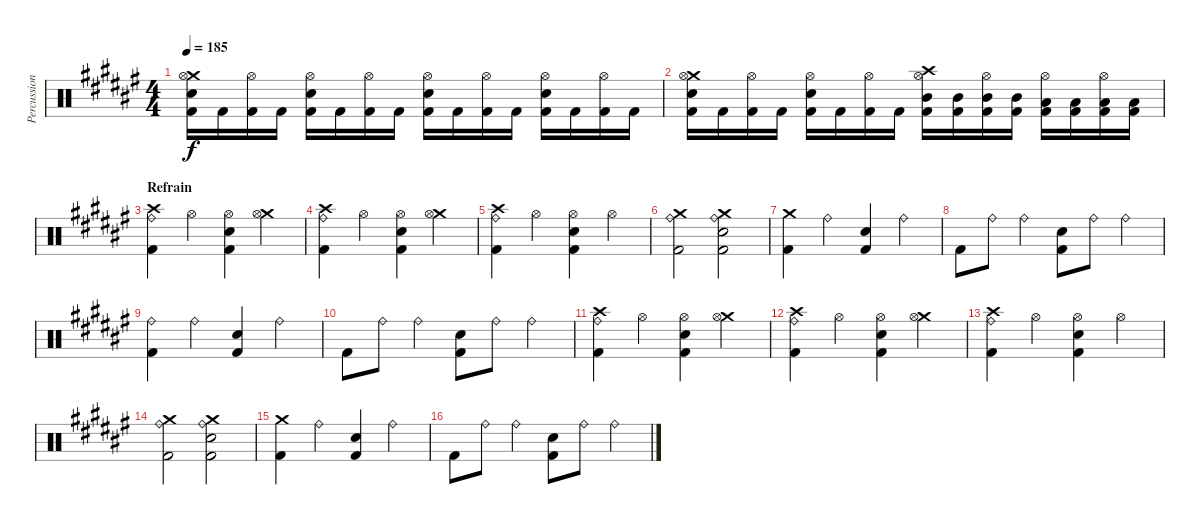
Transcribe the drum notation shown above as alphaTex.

\track ("Percussion" "Percussion") {instrument percussion}
\staff {score}
\articulation defaults
\ts (4 4)
\tempo 185
\clef neutral
\ks d#minor
("Crash medium (hit)" "Hi-Hat (open)" "Electric Snare (hit)" "Kick (hit) 2").16{dy f} "Kick (hit) 2".16 ("Hi-Hat (open)" "Kick (hit) 2").16 "Kick (hit) 2".16 ("Hi-Hat (open)" "Electric Snare (hit)" "Kick (hit) 2").16 "Kick (hit) 2".16 ("Hi-Hat (open)" "Kick (hit) 2").16 "Kick (hit) 2".16 ("Hi-Hat (open)" "Electric Snare (hit)" "Kick (hit) 2").16 "Kick (hit) 2".16 ("Hi-Hat (open)" "Kick (hit) 2").16 "Kick (hit) 2".16 ("Hi-Hat (open)" "Electric Snare (hit)" "Kick (hit) 2").16 "Kick (hit) 2".16 ("Hi-Hat (open)" "Kick (hit) 2").16 "Kick (hit) 2".16 |
("Crash medium (hit)" "Hi-Hat (open)" "Electric Snare (hit)" "Kick (hit) 2").16 "Kick (hit) 2".16 ("Hi-Hat (open)" "Kick (hit) 2").16 "Kick (hit) 2".16 ("Hi-Hat (open)" "Electric Snare (hit)" "Kick (hit) 2").16 "Kick (hit) 2".16 ("Hi-Hat (open)" "Kick (hit) 2").16 "Kick (hit) 2".16 ("Crash high (hit)" "Hi-Hat (open)" "Mid Tom (hit)" "Kick (hit) 2").16 ("Mid Tom (hit)" "Kick (hit) 2").16 ("Hi-Hat (open)" "Mid Tom (hit)" "Kick (hit) 2").16 ("Mid Tom (hit)" "Kick (hit) 2").16 ("Hi-Hat (open)" "Low Tom (hit)" "Kick (hit) 2").16 ("Low Tom (hit)" "Kick (hit) 2").16 ("Hi-Hat (open)" "Low Tom (hit)" "Kick (hit) 2").16 ("Low Tom (hit)" "Kick (hit) 2").16 |
\section ("" "Refrain")
("Crash high (hit)" "Ride (bell)" "Kick (hit) 2").4 "Hi-Hat (open)".4 ("Hi-Hat (open)" "Electric Snare (hit)" "Kick (hit) 2").4 ("Crash medium (hit)" "Hi-Hat (open)").4 |
("Crash high (hit)" "Ride (bell)" "Kick (hit) 2").4 "Hi-Hat (open)".4 ("Hi-Hat (open)" "Electric Snare (hit)" "Kick (hit) 2").4 ("Crash medium (hit)" "Hi-Hat (open)").4 |
("Crash high (hit)" "Ride (bell)" "Kick (hit) 2").4 "Hi-Hat (open)".4 ("Hi-Hat (open)" "Electric Snare (hit)" "Kick (hit) 2").4 "Hi-Hat (open)".4 |
("Crash medium (hit)" "Ride (bell)" "Kick (hit) 2").2 ("Crash medium (hit)" "Ride (bell)" "Electric Snare (hit)" "Kick (hit) 2").2 |
("Crash medium (hit)" "Kick (hit) 2").4 "Ride (bell)".4 ("Electric Snare (hit)" "Kick (hit) 2").4 "Ride (bell)".4 |
"Kick (hit) 2".8 "Ride (bell)".8 "Ride (bell)".4 ("Electric Snare (hit)" "Kick (hit) 2").8 "Ride (bell)".8 "Ride (bell)".4 |
("Ride (bell)" "Kick (hit) 2").4 "Ride (bell)".4 ("Electric Snare (hit)" "Kick (hit) 2").4 "Ride (bell)".4 |
"Kick (hit) 2".8 "Ride (bell)".8 "Ride (bell)".4 ("Electric Snare (hit)" "Kick (hit) 2").8 "Ride (bell)".8 "Ride (bell)".4 |
("Crash high (hit)" "Ride (bell)" "Kick (hit) 2").4 "Hi-Hat (open)".4 ("Hi-Hat (open)" "Electric Snare (hit)" "Kick (hit) 2").4 ("Crash medium (hit)" "Hi-Hat (open)").4 |
("Crash high (hit)" "Ride (bell)" "Kick (hit) 2").4 "Hi-Hat (open)".4 ("Hi-Hat (open)" "Electric Snare (hit)" "Kick (hit) 2").4 ("Crash medium (hit)" "Hi-Hat (open)").4 |
("Crash high (hit)" "Ride (bell)" "Kick (hit) 2").4 "Hi-Hat (open)".4 ("Hi-Hat (open)" "Electric Snare (hit)" "Kick (hit) 2").4 "Hi-Hat (open)".4 |
("Crash medium (hit)" "Ride (bell)" "Kick (hit) 2").2 ("Crash medium (hit)" "Ride (bell)" "Electric Snare (hit)" "Kick (hit) 2").2 |
("Crash medium (hit)" "Kick (hit) 2").4 "Ride (bell)".4 ("Electric Snare (hit)" "Kick (hit) 2").4 "Ride (bell)".4 |
"Kick (hit) 2".8 "Ride (bell)".8 "Ride (bell)".4 ("Electric Snare (hit)" "Kick (hit) 2").8 "Ride (bell)".8 "Ride (bell)".4
